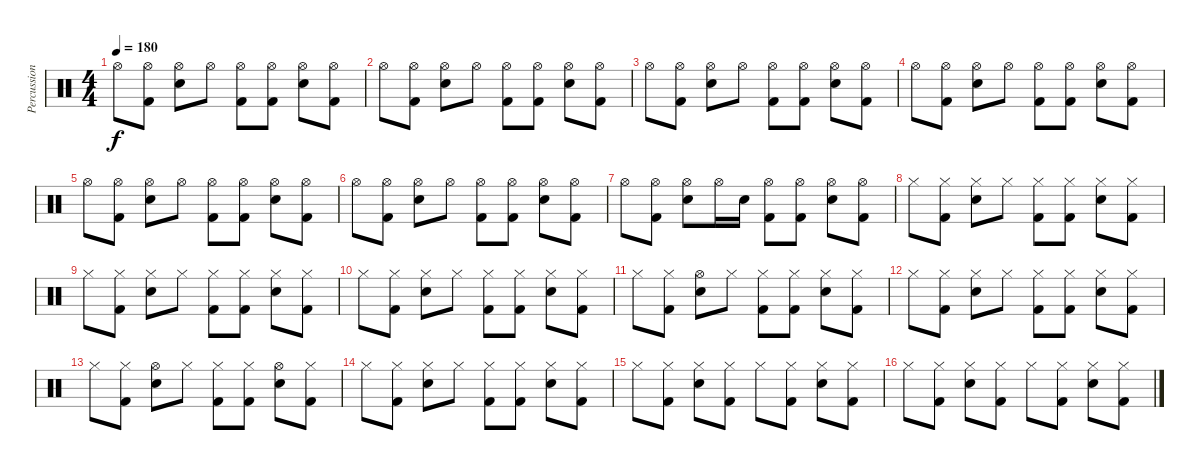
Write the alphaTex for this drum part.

\track ("Percussion" "Percussion") {instrument percussion}
\staff {score}
\articulation defaults
\ts (4 4)
\tempo 180
\clef neutral
\ks c "Hi-Hat (open)".8{dy f}
("Hi-Hat (open)" "Kick (hit) 2").8 ("Hi-Hat (open)" "Electric Snare (hit)").8 "Hi-Hat (open)".8 ("Hi-Hat (open)" "Kick (hit) 2").8 ("Hi-Hat (open)" "Kick (hit) 2").8 ("Hi-Hat (open)" "Electric Snare (hit)").8 ("Hi-Hat (open)" "Kick (hit) 2").8 |
"Hi-Hat (open)".8 ("Hi-Hat (open)" "Kick (hit) 2").8 ("Hi-Hat (open)" "Electric Snare (hit)").8 "Hi-Hat (open)".8 ("Hi-Hat (open)" "Kick (hit) 2").8 ("Hi-Hat (open)" "Kick (hit) 2").8 ("Hi-Hat (open)" "Electric Snare (hit)").8 ("Hi-Hat (open)" "Kick (hit) 2").8 |
"Hi-Hat (open)".8 ("Hi-Hat (open)" "Kick (hit) 2").8 ("Hi-Hat (open)" "Electric Snare (hit)").8 "Hi-Hat (open)".8 ("Hi-Hat (open)" "Kick (hit) 2").8 ("Hi-Hat (open)" "Kick (hit) 2").8 ("Hi-Hat (open)" "Electric Snare (hit)").8 ("Hi-Hat (open)" "Kick (hit) 2").8 |
"Hi-Hat (open)".8 ("Hi-Hat (open)" "Kick (hit) 2").8 ("Hi-Hat (open)" "Electric Snare (hit)").8 "Hi-Hat (open)".8 ("Hi-Hat (open)" "Kick (hit) 2").8 ("Hi-Hat (open)" "Kick (hit) 2").8 ("Hi-Hat (open)" "Electric Snare (hit)").8 ("Hi-Hat (open)" "Kick (hit) 2").8 |
"Hi-Hat (open)".8 ("Hi-Hat (open)" "Kick (hit) 2").8 ("Hi-Hat (open)" "Electric Snare (hit)").8 "Hi-Hat (open)".8 ("Hi-Hat (open)" "Kick (hit) 2").8 ("Hi-Hat (open)" "Kick (hit) 2").8 ("Hi-Hat (open)" "Electric Snare (hit)").8 ("Hi-Hat (open)" "Kick (hit) 2").8 |
"Hi-Hat (open)".8 ("Hi-Hat (open)" "Kick (hit) 2").8 ("Hi-Hat (open)" "Electric Snare (hit)").8 "Hi-Hat (open)".8 ("Hi-Hat (open)" "Kick (hit) 2").8 ("Hi-Hat (open)" "Kick (hit) 2").8 ("Hi-Hat (open)" "Electric Snare (hit)").8 ("Hi-Hat (open)" "Kick (hit) 2").8 |
"Hi-Hat (open)".8 ("Hi-Hat (open)" "Kick (hit) 2").8 ("Hi-Hat (open)" "Electric Snare (hit)").8 "Hi-Hat (open)".16 "Electric Snare (hit)".16 ("Hi-Hat (open)" "Kick (hit) 2").8 ("Hi-Hat (open)" "Kick (hit) 2").8 ("Hi-Hat (open)" "Electric Snare (hit)").8 ("Hi-Hat (open)" "Kick (hit) 2").8 |
"Hi-Hat (closed)".8 ("Hi-Hat (closed)" "Kick (hit) 2").8 ("Hi-Hat (closed)" "Electric Snare (hit)").8 "Hi-Hat (closed)".8 ("Hi-Hat (closed)" "Kick (hit) 2").8 ("Hi-Hat (closed)" "Kick (hit) 2").8 ("Hi-Hat (closed)" "Electric Snare (hit)").8 ("Hi-Hat (closed)" "Kick (hit) 2").8 |
"Hi-Hat (closed)".8 ("Hi-Hat (closed)" "Kick (hit) 2").8 ("Hi-Hat (closed)" "Electric Snare (hit)").8 "Hi-Hat (closed)".8 ("Hi-Hat (closed)" "Kick (hit) 2").8 ("Hi-Hat (closed)" "Kick (hit) 2").8 ("Hi-Hat (closed)" "Electric Snare (hit)").8 ("Hi-Hat (closed)" "Kick (hit) 2").8 |
"Hi-Hat (closed)".8 ("Hi-Hat (closed)" "Kick (hit) 2").8 ("Hi-Hat (closed)" "Electric Snare (hit)").8 "Hi-Hat (closed)".8 ("Hi-Hat (closed)" "Kick (hit) 2").8 ("Hi-Hat (closed)" "Kick (hit) 2").8 ("Hi-Hat (closed)" "Electric Snare (hit)").8 ("Hi-Hat (closed)" "Kick (hit) 2").8 |
"Hi-Hat (closed)".8 ("Hi-Hat (closed)" "Kick (hit) 2").8 ("Hi-Hat (open)" "Electric Snare (hit)").8 "Hi-Hat (closed)".8 ("Hi-Hat (closed)" "Kick (hit) 2").8 ("Hi-Hat (closed)" "Kick (hit) 2").8 ("Hi-Hat (closed)" "Electric Snare (hit)").8 ("Hi-Hat (closed)" "Kick (hit) 2").8 |
"Hi-Hat (closed)".8 ("Hi-Hat (closed)" "Kick (hit) 2").8 ("Hi-Hat (closed)" "Electric Snare (hit)").8 "Hi-Hat (closed)".8 ("Hi-Hat (closed)" "Kick (hit) 2").8 ("Hi-Hat (closed)" "Kick (hit) 2").8 ("Hi-Hat (closed)" "Electric Snare (hit)").8 ("Hi-Hat (closed)" "Kick (hit) 2").8 |
"Hi-Hat (closed)".8 ("Hi-Hat (closed)" "Kick (hit) 2").8 ("Hi-Hat (open)" "Electric Snare (hit)").8 "Hi-Hat (closed)".8 ("Hi-Hat (closed)" "Kick (hit) 2").8 ("Hi-Hat (closed)" "Kick (hit) 2").8 ("Hi-Hat (open)" "Electric Snare (hit)").8 ("Hi-Hat (closed)" "Kick (hit) 2").8 |
"Hi-Hat (closed)".8 ("Hi-Hat (closed)" "Kick (hit) 2").8 ("Hi-Hat (closed)" "Electric Snare (hit)").8 "Hi-Hat (closed)".8 ("Hi-Hat (closed)" "Kick (hit) 2").8 ("Hi-Hat (closed)" "Kick (hit) 2").8 ("Hi-Hat (closed)" "Electric Snare (hit)").8 ("Hi-Hat (closed)" "Kick (hit) 2").8 |
"Hi-Hat (closed)".8 ("Hi-Hat (closed)" "Kick (hit) 2").8 ("Hi-Hat (closed)" "Electric Snare (hit)").8 ("Hi-Hat (closed)" "Kick (hit) 2").8 "Hi-Hat (closed)".8 ("Hi-Hat (closed)" "Kick (hit) 2").8 ("Hi-Hat (closed)" "Electric Snare (hit)").8 ("Hi-Hat (closed)" "Kick (hit) 2").8 |
"Hi-Hat (closed)".8 ("Hi-Hat (closed)" "Kick (hit) 2").8 ("Hi-Hat (closed)" "Electric Snare (hit)").8 ("Hi-Hat (closed)" "Kick (hit) 2").8 "Hi-Hat (closed)".8 ("Hi-Hat (closed)" "Kick (hit) 2").8 ("Hi-Hat (closed)" "Electric Snare (hit)").8 ("Hi-Hat (closed)" "Kick (hit) 2").8
